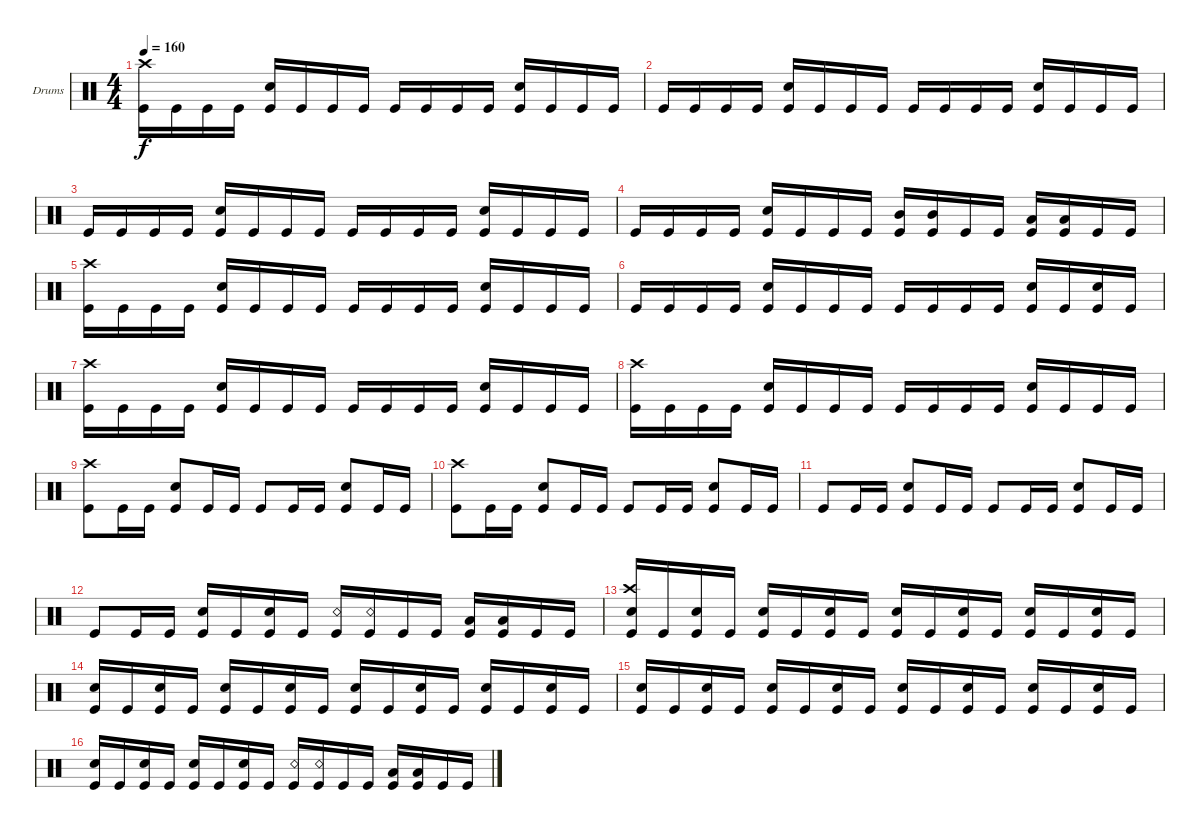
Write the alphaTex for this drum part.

\defaultSystemsLayout 4
\bracketExtendMode groupsimilarinstruments
\firstSystemTrackNameOrientation horizontal
\otherSystemsTrackNameOrientation horizontal
\track ("Drumkit" "Drums") {instrument percussion}
\staff {score}
\articulation defaults
\ts (4 4)
\tempo 160
\clef neutral
\scale
0.333333
\ks c
("Kick (hit)" "Crash high (hit)").16{dy f} "Kick (hit)".16 "Kick (hit)".16 "Kick (hit)".16 ("Kick (hit)" "Snare (hit) 2").16 "Kick (hit)".16 "Kick (hit)".16 "Kick (hit)".16 "Kick (hit)".16 "Kick (hit)".16 "Kick (hit)".16 "Kick (hit)".16 ("Kick (hit)" "Snare (hit) 2").16 "Kick (hit)".16 "Kick (hit)".16 "Kick (hit)".16 |
\scale
0.333333 "Kick (hit)".16 "Kick (hit)".16 "Kick (hit)".16 "Kick (hit)".16 ("Kick (hit)" "Snare (hit) 2").16 "Kick (hit)".16 "Kick (hit)".16 "Kick (hit)".16 "Kick (hit)".16 "Kick (hit)".16 "Kick (hit)".16 "Kick (hit)".16 ("Kick (hit)" "Snare (hit) 2").16 "Kick (hit)".16 "Kick (hit)".16 "Kick (hit)".16 |
\scale
0.333333 "Kick (hit)".16 "Kick (hit)".16 "Kick (hit)".16 "Kick (hit)".16 ("Kick (hit)" "Snare (hit) 2").16 "Kick (hit)".16 "Kick (hit)".16 "Kick (hit)".16 "Kick (hit)".16 "Kick (hit)".16 "Kick (hit)".16 "Kick (hit)".16 ("Kick (hit)" "Snare (hit) 2").16 "Kick (hit)".16 "Kick (hit)".16 "Kick (hit)".16 |
\scale
0.333333 "Kick (hit)".16 "Kick (hit)".16 "Kick (hit)".16 "Kick (hit)".16 ("Kick (hit)" "Snare (hit) 2").16 "Kick (hit)".16 "Kick (hit)".16 "Kick (hit)".16 ("Kick (hit)" "Mid Tom (hit)").16 ("Kick (hit)" "Mid Tom (hit)").16 "Kick (hit)".16 "Kick (hit)".16 ("Kick (hit)" "Low Tom (hit)").16 ("Kick (hit)" "Low Tom (hit)").16 "Kick (hit)".16 "Kick (hit)".16 |
\scale
0.333333 ("Kick (hit)" "Crash high (hit)").16 "Kick (hit)".16 "Kick (hit)".16 "Kick (hit)".16 ("Kick (hit)" "Snare (hit) 2").16 "Kick (hit)".16 "Kick (hit)".16 "Kick (hit)".16 "Kick (hit)".16 "Kick (hit)".16 "Kick (hit)".16 "Kick (hit)".16 ("Kick (hit)" "Snare (hit) 2").16 "Kick (hit)".16 "Kick (hit)".16 "Kick (hit)".16 |
\scale
0.333333 "Kick (hit)".16 "Kick (hit)".16 "Kick (hit)".16 "Kick (hit)".16 ("Kick (hit)" "Snare (hit) 2").16 "Kick (hit)".16 "Kick (hit)".16 "Kick (hit)".16 "Kick (hit)".16 "Kick (hit)".16 "Kick (hit)".16 "Kick (hit)".16 ("Kick (hit)" "Snare (hit) 2").16 "Kick (hit)".16 ("Kick (hit)" "Snare (hit) 2").16 "Kick (hit)".16 |
\scale
0.333333 ("Kick (hit)" "Crash high (hit)").16 "Kick (hit)".16 "Kick (hit)".16 "Kick (hit)".16 ("Kick (hit)" "Snare (hit) 2").16 "Kick (hit)".16 "Kick (hit)".16 "Kick (hit)".16 "Kick (hit)".16 "Kick (hit)".16 "Kick (hit)".16 "Kick (hit)".16 ("Kick (hit)" "Snare (hit) 2").16 "Kick (hit)".16 "Kick (hit)".16 "Kick (hit)".16 |
\scale
0.333333 ("Kick (hit)" "Crash high (hit)").16 "Kick (hit)".16 "Kick (hit)".16 "Kick (hit)".16 ("Kick (hit)" "Snare (hit) 2").16 "Kick (hit)".16 "Kick (hit)".16 "Kick (hit)".16 "Kick (hit)".16 "Kick (hit)".16 "Kick (hit)".16 "Kick (hit)".16 ("Kick (hit)" "Snare (hit) 2").16 "Kick (hit)".16 "Kick (hit)".16 "Kick (hit)".16 |
\scale
0.333333 ("Kick (hit)" "Crash high (hit)").8 "Kick (hit)".16 "Kick (hit)".16 ("Kick (hit)" "Snare (hit) 2").8 "Kick (hit)".16 "Kick (hit)".16 "Kick (hit)".8 "Kick (hit)".16 "Kick (hit)".16 ("Kick (hit)" "Snare (hit) 2").8 "Kick (hit)".16 "Kick (hit)".16 |
\scale
0.333333 ("Kick (hit)" "Crash high (hit)").8 "Kick (hit)".16 "Kick (hit)".16 ("Kick (hit)" "Snare (hit) 2").8 "Kick (hit)".16 "Kick (hit)".16 "Kick (hit)".8 "Kick (hit)".16 "Kick (hit)".16 ("Kick (hit)" "Snare (hit) 2").8 "Kick (hit)".16 "Kick (hit)".16 |
\scale
0.333333 "Kick (hit)".8 "Kick (hit)".16 "Kick (hit)".16 ("Kick (hit)" "Snare (hit) 2").8 "Kick (hit)".16 "Kick (hit)".16 "Kick (hit)".8 "Kick (hit)".16 "Kick (hit)".16 ("Kick (hit)" "Snare (hit) 2").8 "Kick (hit)".16 "Kick (hit)".16 |
\scale
0.333333 "Kick (hit)".8 "Kick (hit)".16 "Kick (hit)".16 ("Kick (hit)" "Snare (hit) 2").16 "Kick (hit)".16 ("Kick (hit)" "Snare (hit) 2").16 "Kick (hit)".16 ("Kick (hit)" "Snare (rim shot)").16 ("Kick (hit)" "Snare (rim shot)").16 "Kick (hit)".16 "Kick (hit)".16 ("Kick (hit)" "Low Tom (hit)").16 ("Kick (hit)" "Low Tom (hit)").16 "Kick (hit)".16 "Kick (hit)".16 |
\scale
0.333333 ("Snare (hit) 2" "Crash high (hit)" "Kick (hit)").16 "Kick (hit)".16 ("Snare (hit) 2" "Kick (hit)").16 "Kick (hit)".16 ("Snare (hit) 2" "Kick (hit)").16 "Kick (hit)".16 ("Snare (hit) 2" "Kick (hit)").16 "Kick (hit)".16 ("Snare (hit) 2" "Kick (hit)").16 "Kick (hit)".16 ("Snare (hit) 2" "Kick (hit)").16 "Kick (hit)".16 ("Snare (hit) 2" "Kick (hit)").16 "Kick (hit)".16 ("Snare (hit) 2" "Kick (hit)").16 "Kick (hit)".16 |
("Snare (hit) 2" "Kick (hit)").16 "Kick (hit)".16 ("Snare (hit) 2" "Kick (hit)").16 "Kick (hit)".16 ("Snare (hit) 2" "Kick (hit)").16 "Kick (hit)".16 ("Snare (hit) 2" "Kick (hit)").16 "Kick (hit)".16 ("Snare (hit) 2" "Kick (hit)").16 "Kick (hit)".16 ("Snare (hit) 2" "Kick (hit)").16 "Kick (hit)".16 ("Snare (hit) 2" "Kick (hit)").16 "Kick (hit)".16 ("Snare (hit) 2" "Kick (hit)").16 "Kick (hit)".16 |
("Snare (hit) 2" "Kick (hit)").16 "Kick (hit)".16 ("Snare (hit) 2" "Kick (hit)").16 "Kick (hit)".16 ("Snare (hit) 2" "Kick (hit)").16 "Kick (hit)".16 ("Snare (hit) 2" "Kick (hit)").16 "Kick (hit)".16 ("Snare (hit) 2" "Kick (hit)").16 "Kick (hit)".16 ("Snare (hit) 2" "Kick (hit)").16 "Kick (hit)".16 ("Snare (hit) 2" "Kick (hit)").16 "Kick (hit)".16 ("Snare (hit) 2" "Kick (hit)").16 "Kick (hit)".16 |
("Snare (hit) 2" "Kick (hit)").16 "Kick (hit)".16 ("Snare (hit) 2" "Kick (hit)").16 "Kick (hit)".16 ("Snare (hit) 2" "Kick (hit)").16 "Kick (hit)".16 ("Snare (hit) 2" "Kick (hit)").16 "Kick (hit)".16 ("Kick (hit)" "Snare (rim shot)").16 ("Kick (hit)" "Snare (rim shot)").16 "Kick (hit)".16 "Kick (hit)".16 ("Low Tom (hit)" "Kick (hit)").16 ("Low Tom (hit)" "Kick (hit)").16 "Kick (hit)".16 "Kick (hit)".16
